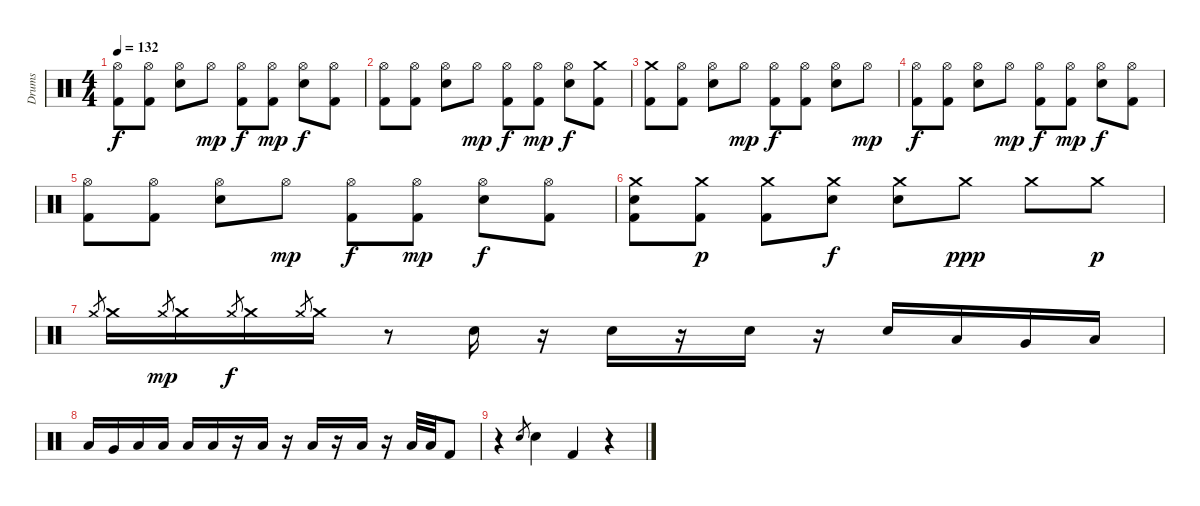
\track ("Drums" "Drums") {instrument percussion}
\staff {score}
\articulation defaults
\ts (4 4)
\tempo 132
\clef neutral
\ks c
("Hi-Hat (open)" "Kick (hit) 2").8{dy f} ("Hi-Hat (open)" "Kick (hit) 2").8 ("Hi-Hat (open)" "Snare (hit) 2").8 "Hi-Hat (open)".8{dy mp} ("Hi-Hat (open)" "Kick (hit) 2").8{dy f} ("Hi-Hat (open)" "Kick (hit) 2").8{dy mp} ("Hi-Hat (open)" "Snare (hit) 2").8{dy f} ("Hi-Hat (open)" "Kick (hit) 2").8 |
("Hi-Hat (open)" "Kick (hit) 2").8 ("Hi-Hat (open)" "Kick (hit) 2").8 ("Hi-Hat (open)" "Snare (hit) 2").8 "Hi-Hat (open)".8{dy mp} ("Hi-Hat (open)" "Kick (hit) 2").8{dy f} ("Hi-Hat (open)" "Kick (hit) 2").8{dy mp} ("Hi-Hat (open)" "Snare (hit) 2").8{dy f} ("Crash medium (hit)" "Kick (hit) 2").8 |
("Crash medium (hit)" "Kick (hit) 2").8 ("Hi-Hat (open)" "Kick (hit) 2").8 ("Hi-Hat (open)" "Snare (hit) 2").8 "Hi-Hat (open)".8{dy mp} ("Hi-Hat (open)" "Kick (hit) 2").8{dy f} ("Hi-Hat (open)" "Kick (hit) 2").8 ("Hi-Hat (open)" "Snare (hit) 2").8 "Hi-Hat (open)".8{dy mp} |
("Hi-Hat (open)" "Kick (hit) 2").8{dy f} ("Hi-Hat (open)" "Kick (hit) 2").8 ("Hi-Hat (open)" "Snare (hit) 2").8 "Hi-Hat (open)".8{dy mp} ("Hi-Hat (open)" "Kick (hit) 2").8{dy f} ("Hi-Hat (open)" "Kick (hit) 2").8{dy mp} ("Hi-Hat (open)" "Snare (hit) 2").8{dy f} ("Hi-Hat (open)" "Kick (hit) 2").8 |
("Hi-Hat (open)" "Kick (hit) 2").8 ("Hi-Hat (open)" "Kick (hit) 2").8 ("Hi-Hat (open)" "Snare (hit) 2").8 "Hi-Hat (open)".8{dy mp} ("Hi-Hat (open)" "Kick (hit) 2").8{dy f} ("Hi-Hat (open)" "Kick (hit) 2").8{dy mp} ("Hi-Hat (open)" "Snare (hit) 2").8{dy f} ("Hi-Hat (open)" "Kick (hit) 2").8 |
("Crash medium (hit)" "Snare (hit) 2" "Kick (hit) 2").8 ("Crash medium (hit)" "Kick (hit) 2").8{dy p} ("Crash medium (hit)" "Kick (hit) 2").8 ("Crash medium (hit)" "Snare (hit) 2").8{dy f} ("Crash medium (hit)" "Snare (hit) 2").8 "Crash medium (hit)".8{dy ppp} "Crash medium (hit)".8 "Crash medium (hit)".8{dy p} |
"Crash medium (hit)".8{gr} "Crash medium (hit)".16 "Crash medium (hit)".8{gr dy mp} "Crash medium (hit)".16 "Crash medium (hit)".8{gr dy f} "Crash medium (hit)".16 "Crash medium (hit)".8{gr} "Crash medium (hit)".16 r.8 "Snare (hit) 2".16 r.16 "Snare (hit) 2".16 r.16 "Snare (hit) 2".16 r.16 "Snare (hit) 2".16 "Low Tom (hit)".16 "Very Low Tom (hit)".16 "Low Floor Tom (hit)".16 |
"Low Tom (hit)".16 "Very Low Tom (hit)".16 "Low Floor Tom (hit)".16 "Low Floor Tom (hit)".16 "Low Floor Tom (hit)".16 "Low Floor Tom (hit)".16 r.16 "Low Floor Tom (hit)".16 r.16 "Low Floor Tom (hit)".16 r.16 "Low Floor Tom (hit)".16 r.16 "Low Floor Tom (hit)".32 "Low Floor Tom (hit)".32 "Kick (hit) 2".8 |
r.4 "Snare (hit) 2".8{gr} "Snare (hit) 2".4 "Kick (hit) 2".4 r.4
